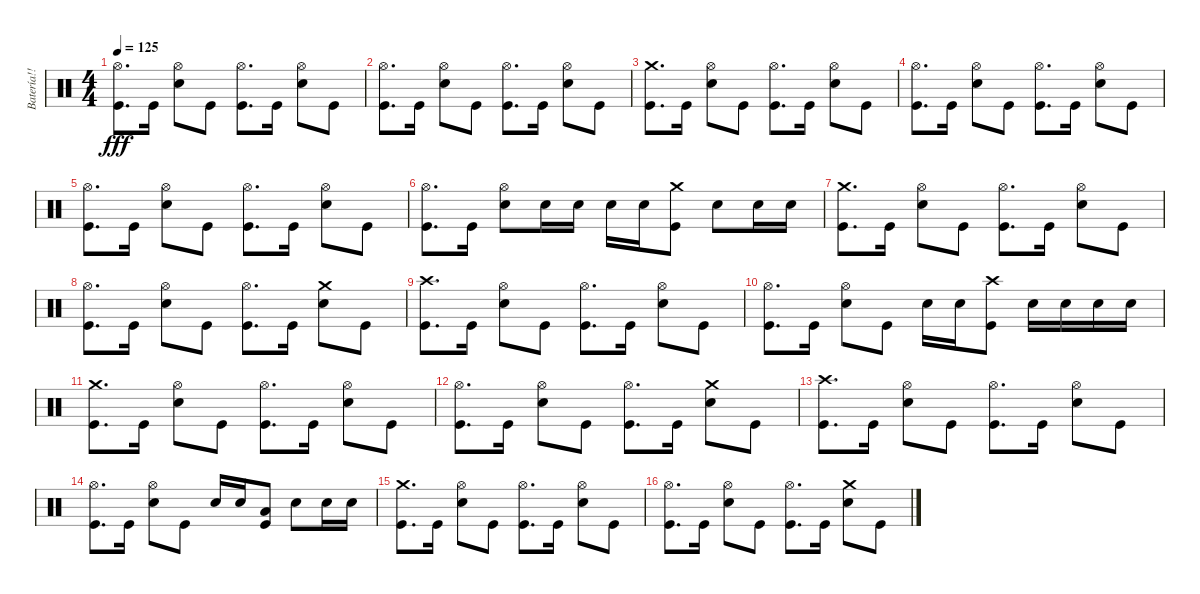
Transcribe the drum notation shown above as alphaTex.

\track ("Batería!! >_<" "Batería!! ") {instrument percussion}
\staff {score}
\articulation defaults
\ts (4 4)
\tempo 125
\clef neutral
\ks c
("Hi-Hat (open)" "Kick (hit)").8{d dy fff} "Kick (hit)".16 ("Hi-Hat (open)" "Snare (hit) 2").8 "Kick (hit)".8 ("Hi-Hat (open)" "Kick (hit)").8{d} "Kick (hit)".16 ("Hi-Hat (open)" "Snare (hit) 2").8 "Kick (hit)".8 |
("Hi-Hat (open)" "Kick (hit)").8{d} "Kick (hit)".16 ("Hi-Hat (open)" "Snare (hit) 2").8 "Kick (hit)".8 ("Hi-Hat (open)" "Kick (hit)").8{d} "Kick (hit)".16 ("Hi-Hat (open)" "Snare (hit) 2").8 "Kick (hit)".8 |
("Crash medium (hit)" "Kick (hit)").8{d} "Kick (hit)".16 ("Hi-Hat (open)" "Snare (hit) 2").8 "Kick (hit)".8 ("Hi-Hat (open)" "Kick (hit)").8{d} "Kick (hit)".16 ("Hi-Hat (open)" "Snare (hit) 2").8 "Kick (hit)".8 |
("Hi-Hat (open)" "Kick (hit)").8{d} "Kick (hit)".16 ("Hi-Hat (open)" "Snare (hit) 2").8 "Kick (hit)".8 ("Hi-Hat (open)" "Kick (hit)").8{d} "Kick (hit)".16 ("Hi-Hat (open)" "Snare (hit) 2").8 "Kick (hit)".8 |
("Hi-Hat (open)" "Kick (hit)").8{d} "Kick (hit)".16 ("Hi-Hat (open)" "Snare (hit) 2").8 "Kick (hit)".8 ("Hi-Hat (open)" "Kick (hit)").8{d} "Kick (hit)".16 ("Hi-Hat (open)" "Snare (hit) 2").8 "Kick (hit)".8 |
("Hi-Hat (open)" "Kick (hit)").8{d} "Kick (hit)".16 ("Hi-Hat (open)" "Snare (hit) 2").8 "Snare (hit) 2".16 "Snare (hit) 2".16 "Snare (hit) 2".16 "Snare (hit) 2".16 ("Crash medium (hit)" "Kick (hit)").8 "Snare (hit) 2".8 "Snare (hit) 2".16 "Snare (hit) 2".16 |
("Crash medium (hit)" "Kick (hit)").8{d} "Kick (hit)".16 ("Hi-Hat (open)" "Snare (hit) 2").8 "Kick (hit)".8 ("Hi-Hat (open)" "Kick (hit)").8{d} "Kick (hit)".16 ("Hi-Hat (open)" "Snare (hit) 2").8 "Kick (hit)".8 |
("Hi-Hat (open)" "Kick (hit)").8{d} "Kick (hit)".16 ("Hi-Hat (open)" "Snare (hit) 2").8 "Kick (hit)".8 ("Hi-Hat (open)" "Kick (hit)").8{d} "Kick (hit)".16 ("Crash medium (hit)" "Snare (hit) 2").8 "Kick (hit)".8 |
("Crash high (hit)" "Kick (hit)").8{d} "Kick (hit)".16 ("Hi-Hat (open)" "Snare (hit) 2").8 "Kick (hit)".8 ("Hi-Hat (open)" "Kick (hit)").8{d} "Kick (hit)".16 ("Hi-Hat (open)" "Snare (hit) 2").8 "Kick (hit)".8 |
("Hi-Hat (open)" "Kick (hit)").8{d} "Kick (hit)".16 ("Hi-Hat (open)" "Snare (hit) 2").8 "Kick (hit)".8 "Snare (hit) 2".16 "Snare (hit) 2".16 ("Crash high (hit)" "Kick (hit)").8 "Snare (hit) 2".16 "Snare (hit) 2".16 "Snare (hit) 2".16 "Snare (hit) 2".16 |
("Crash medium (hit)" "Kick (hit)").8{d} "Kick (hit)".16 ("Hi-Hat (open)" "Snare (hit) 2").8 "Kick (hit)".8 ("Hi-Hat (open)" "Kick (hit)").8{d} "Kick (hit)".16 ("Hi-Hat (open)" "Snare (hit) 2").8 "Kick (hit)".8 |
("Hi-Hat (open)" "Kick (hit)").8{d} "Kick (hit)".16 ("Hi-Hat (open)" "Snare (hit) 2").8 "Kick (hit)".8 ("Hi-Hat (open)" "Kick (hit)").8{d} "Kick (hit)".16 ("Crash medium (hit)" "Snare (hit) 2").8 "Kick (hit)".8 |
("Crash high (hit)" "Kick (hit)").8{d} "Kick (hit)".16 ("Hi-Hat (open)" "Snare (hit) 2").8 "Kick (hit)".8 ("Hi-Hat (open)" "Kick (hit)").8{d} "Kick (hit)".16 ("Hi-Hat (open)" "Snare (hit) 2").8 "Kick (hit)".8 |
("Hi-Hat (open)" "Kick (hit)").8{d} "Kick (hit)".16 ("Hi-Hat (open)" "Snare (hit) 2").8 "Kick (hit)".8 "Snare (hit) 2".16 "Snare (hit) 2".16 ("Low Tom (hit)" "Kick (hit)").8 "Snare (hit) 2".8 "Snare (hit) 2".16 "Snare (hit) 2".16 |
("Crash medium (hit)" "Kick (hit)").8{d} "Kick (hit)".16 ("Hi-Hat (open)" "Snare (hit) 2").8 "Kick (hit)".8 ("Hi-Hat (open)" "Kick (hit)").8{d} "Kick (hit)".16 ("Hi-Hat (open)" "Snare (hit) 2").8 "Kick (hit)".8 |
("Hi-Hat (open)" "Kick (hit)").8{d} "Kick (hit)".16 ("Hi-Hat (open)" "Snare (hit) 2").8 "Kick (hit)".8 ("Hi-Hat (open)" "Kick (hit)").8{d} "Kick (hit)".16 ("Crash medium (hit)" "Snare (hit) 2").8 "Kick (hit)".8
